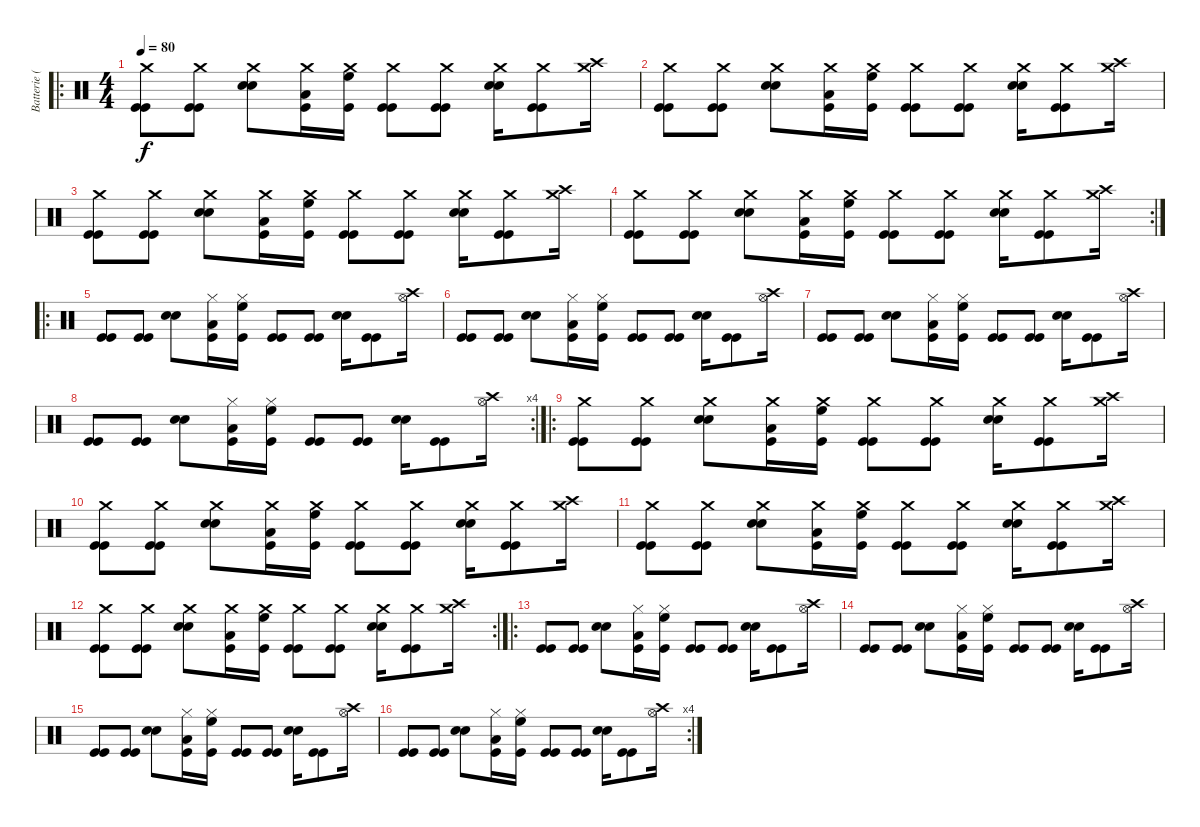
\track ("Batterie (dark)" "Batterie (") {instrument percussion}
\staff {score}
\articulation defaults
\ro
\ts (4 4)
\tempo 80
\clef neutral
\ks c
("Crash medium (hit)" "Kick (hit)" "Kick (hit)").8{dy f} ("Crash medium (hit)" "Kick (hit)" "Kick (hit)").8 ("Crash medium (hit)" "Snare (hit) 2" "Snare (hit) 2").8 ("Crash medium (hit)" "Kick (hit)" "Low Tom (hit)").16 ("Crash medium (hit)" "Kick (hit)" "High Floor Tom (hit)").16 ("Crash medium (hit)" "Kick (hit)" "Kick (hit)").8 ("Crash medium (hit)" "Kick (hit)" "Kick (hit)").8 ("Crash medium (hit)" "Snare (hit) 2" "Snare (hit) 2").16 ("Crash medium (hit)" "Kick (hit)" "Kick (hit)").8 ("Crash medium (hit)" "Crash high (hit)").16 |
("Crash medium (hit)" "Kick (hit)" "Kick (hit)").8 ("Crash medium (hit)" "Kick (hit)" "Kick (hit)").8 ("Crash medium (hit)" "Snare (hit) 2" "Snare (hit) 2").8 ("Crash medium (hit)" "Kick (hit)" "Low Tom (hit)").16 ("Crash medium (hit)" "Kick (hit)" "High Floor Tom (hit)").16 ("Crash medium (hit)" "Kick (hit)" "Kick (hit)").8 ("Crash medium (hit)" "Kick (hit)" "Kick (hit)").8 ("Crash medium (hit)" "Snare (hit) 2" "Snare (hit) 2").16 ("Crash medium (hit)" "Kick (hit)" "Kick (hit)").8 ("Crash medium (hit)" "Crash high (hit)").16 |
("Crash medium (hit)" "Kick (hit)" "Kick (hit)").8 ("Crash medium (hit)" "Kick (hit)" "Kick (hit)").8 ("Crash medium (hit)" "Snare (hit) 2" "Snare (hit) 2").8 ("Crash medium (hit)" "Kick (hit)" "Low Tom (hit)").16 ("Crash medium (hit)" "Kick (hit)" "High Floor Tom (hit)").16 ("Crash medium (hit)" "Kick (hit)" "Kick (hit)").8 ("Crash medium (hit)" "Kick (hit)" "Kick (hit)").8 ("Crash medium (hit)" "Snare (hit) 2" "Snare (hit) 2").16 ("Crash medium (hit)" "Kick (hit)" "Kick (hit)").8 ("Crash medium (hit)" "Crash high (hit)").16 |
\rc 2
("Crash medium (hit)" "Kick (hit)" "Kick (hit)").8 ("Crash medium (hit)" "Kick (hit)" "Kick (hit)").8 ("Crash medium (hit)" "Snare (hit) 2" "Snare (hit) 2").8 ("Crash medium (hit)" "Kick (hit)" "Low Tom (hit)").16 ("Crash medium (hit)" "Kick (hit)" "High Floor Tom (hit)").16 ("Crash medium (hit)" "Kick (hit)" "Kick (hit)").8 ("Crash medium (hit)" "Kick (hit)" "Kick (hit)").8 ("Crash medium (hit)" "Snare (hit) 2" "Snare (hit) 2").16 ("Crash medium (hit)" "Kick (hit)" "Kick (hit)").8 ("Crash medium (hit)" "Crash high (hit)").16 |
\ro
("Kick (hit)" "Kick (hit)").8 ("Kick (hit)" "Kick (hit)").8 ("Snare (hit) 2" "Snare (hit) 2").8 ("Hi-Hat (closed)" "Kick (hit)" "Low Tom (hit)").16 ("Hi-Hat (closed)" "Kick (hit)" "High Floor Tom (hit)").16 ("Kick (hit)" "Kick (hit)").8 ("Kick (hit)" "Kick (hit)").8 ("Snare (hit) 2" "Snare (hit) 2").16 ("Kick (hit)" "Kick (hit)").8 ("Crash high (hit)" "Hi-Hat (open)").16 |
("Kick (hit)" "Kick (hit)").8 ("Kick (hit)" "Kick (hit)").8 ("Snare (hit) 2" "Snare (hit) 2").8 ("Hi-Hat (closed)" "Kick (hit)" "Low Tom (hit)").16 ("Hi-Hat (closed)" "Kick (hit)" "High Floor Tom (hit)").16 ("Kick (hit)" "Kick (hit)").8 ("Kick (hit)" "Kick (hit)").8 ("Snare (hit) 2" "Snare (hit) 2").16 ("Kick (hit)" "Kick (hit)").8 ("Crash high (hit)" "Hi-Hat (open)").16 |
("Kick (hit)" "Kick (hit)").8 ("Kick (hit)" "Kick (hit)").8 ("Snare (hit) 2" "Snare (hit) 2").8 ("Hi-Hat (closed)" "Kick (hit)" "Low Tom (hit)").16 ("Hi-Hat (closed)" "Kick (hit)" "High Floor Tom (hit)").16 ("Kick (hit)" "Kick (hit)").8 ("Kick (hit)" "Kick (hit)").8 ("Snare (hit) 2" "Snare (hit) 2").16 ("Kick (hit)" "Kick (hit)").8 ("Crash high (hit)" "Hi-Hat (open)").16 |
\rc 4
("Kick (hit)" "Kick (hit)").8 ("Kick (hit)" "Kick (hit)").8 ("Snare (hit) 2" "Snare (hit) 2").8 ("Hi-Hat (closed)" "Kick (hit)" "Low Tom (hit)").16 ("Hi-Hat (closed)" "Kick (hit)" "High Floor Tom (hit)").16 ("Kick (hit)" "Kick (hit)").8 ("Kick (hit)" "Kick (hit)").8 ("Snare (hit) 2" "Snare (hit) 2").16 ("Kick (hit)" "Kick (hit)").8 ("Crash high (hit)" "Hi-Hat (open)").16 |
\ro
("Crash medium (hit)" "Kick (hit)" "Kick (hit)").8 ("Crash medium (hit)" "Kick (hit)" "Kick (hit)").8 ("Crash medium (hit)" "Snare (hit) 2" "Snare (hit) 2").8 ("Crash medium (hit)" "Kick (hit)" "Low Tom (hit)").16 ("Crash medium (hit)" "Kick (hit)" "High Floor Tom (hit)").16 ("Crash medium (hit)" "Kick (hit)" "Kick (hit)").8 ("Crash medium (hit)" "Kick (hit)" "Kick (hit)").8 ("Crash medium (hit)" "Snare (hit) 2" "Snare (hit) 2").16 ("Crash medium (hit)" "Kick (hit)" "Kick (hit)").8 ("Crash medium (hit)" "Crash high (hit)").16 |
("Crash medium (hit)" "Kick (hit)" "Kick (hit)").8 ("Crash medium (hit)" "Kick (hit)" "Kick (hit)").8 ("Crash medium (hit)" "Snare (hit) 2" "Snare (hit) 2").8 ("Crash medium (hit)" "Kick (hit)" "Low Tom (hit)").16 ("Crash medium (hit)" "Kick (hit)" "High Floor Tom (hit)").16 ("Crash medium (hit)" "Kick (hit)" "Kick (hit)").8 ("Crash medium (hit)" "Kick (hit)" "Kick (hit)").8 ("Crash medium (hit)" "Snare (hit) 2" "Snare (hit) 2").16 ("Crash medium (hit)" "Kick (hit)" "Kick (hit)").8 ("Crash medium (hit)" "Crash high (hit)").16 |
("Crash medium (hit)" "Kick (hit)" "Kick (hit)").8 ("Crash medium (hit)" "Kick (hit)" "Kick (hit)").8 ("Crash medium (hit)" "Snare (hit) 2" "Snare (hit) 2").8 ("Crash medium (hit)" "Kick (hit)" "Low Tom (hit)").16 ("Crash medium (hit)" "Kick (hit)" "High Floor Tom (hit)").16 ("Crash medium (hit)" "Kick (hit)" "Kick (hit)").8 ("Crash medium (hit)" "Kick (hit)" "Kick (hit)").8 ("Crash medium (hit)" "Snare (hit) 2" "Snare (hit) 2").16 ("Crash medium (hit)" "Kick (hit)" "Kick (hit)").8 ("Crash medium (hit)" "Crash high (hit)").16 |
\rc 2
("Crash medium (hit)" "Kick (hit)" "Kick (hit)").8 ("Crash medium (hit)" "Kick (hit)" "Kick (hit)").8 ("Crash medium (hit)" "Snare (hit) 2" "Snare (hit) 2").8 ("Crash medium (hit)" "Kick (hit)" "Low Tom (hit)").16 ("Crash medium (hit)" "Kick (hit)" "High Floor Tom (hit)").16 ("Crash medium (hit)" "Kick (hit)" "Kick (hit)").8 ("Crash medium (hit)" "Kick (hit)" "Kick (hit)").8 ("Crash medium (hit)" "Snare (hit) 2" "Snare (hit) 2").16 ("Crash medium (hit)" "Kick (hit)" "Kick (hit)").8 ("Crash medium (hit)" "Crash high (hit)").16 |
\ro
("Kick (hit)" "Kick (hit)").8 ("Kick (hit)" "Kick (hit)").8 ("Snare (hit) 2" "Snare (hit) 2").8 ("Hi-Hat (closed)" "Kick (hit)" "Low Tom (hit)").16 ("Hi-Hat (closed)" "Kick (hit)" "High Floor Tom (hit)").16 ("Kick (hit)" "Kick (hit)").8 ("Kick (hit)" "Kick (hit)").8 ("Snare (hit) 2" "Snare (hit) 2").16 ("Kick (hit)" "Kick (hit)").8 ("Crash high (hit)" "Hi-Hat (open)").16 |
("Kick (hit)" "Kick (hit)").8 ("Kick (hit)" "Kick (hit)").8 ("Snare (hit) 2" "Snare (hit) 2").8 ("Hi-Hat (closed)" "Kick (hit)" "Low Tom (hit)").16 ("Hi-Hat (closed)" "Kick (hit)" "High Floor Tom (hit)").16 ("Kick (hit)" "Kick (hit)").8 ("Kick (hit)" "Kick (hit)").8 ("Snare (hit) 2" "Snare (hit) 2").16 ("Kick (hit)" "Kick (hit)").8 ("Crash high (hit)" "Hi-Hat (open)").16 |
("Kick (hit)" "Kick (hit)").8 ("Kick (hit)" "Kick (hit)").8 ("Snare (hit) 2" "Snare (hit) 2").8 ("Hi-Hat (closed)" "Kick (hit)" "Low Tom (hit)").16 ("Hi-Hat (closed)" "Kick (hit)" "High Floor Tom (hit)").16 ("Kick (hit)" "Kick (hit)").8 ("Kick (hit)" "Kick (hit)").8 ("Snare (hit) 2" "Snare (hit) 2").16 ("Kick (hit)" "Kick (hit)").8 ("Crash high (hit)" "Hi-Hat (open)").16 |
\rc 4
("Kick (hit)" "Kick (hit)").8 ("Kick (hit)" "Kick (hit)").8 ("Snare (hit) 2" "Snare (hit) 2").8 ("Hi-Hat (closed)" "Kick (hit)" "Low Tom (hit)").16 ("Hi-Hat (closed)" "Kick (hit)" "High Floor Tom (hit)").16 ("Kick (hit)" "Kick (hit)").8 ("Kick (hit)" "Kick (hit)").8 ("Snare (hit) 2" "Snare (hit) 2").16 ("Kick (hit)" "Kick (hit)").8 ("Crash high (hit)" "Hi-Hat (open)").16
